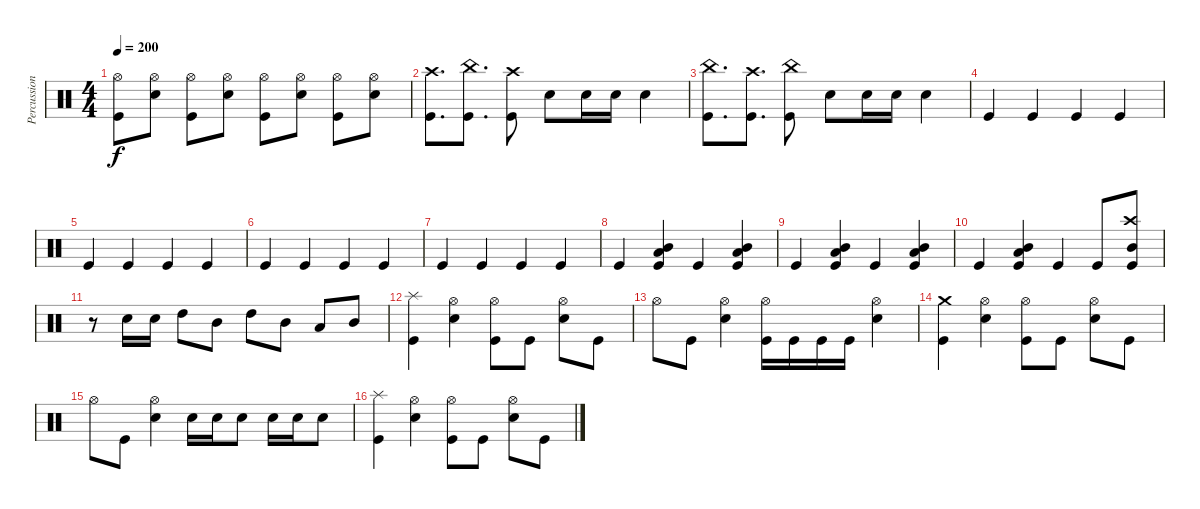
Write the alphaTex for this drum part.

\track ("Percussion" "Percussion") {instrument percussion}
\staff {score}
\articulation defaults
\ts (4 4)
\tempo 200
\clef neutral
\ks c
("Hi-Hat (open)" "Kick (hit)").8{dy f} ("Hi-Hat (open)" "Electric Snare (hit)").8 ("Hi-Hat (open)" "Kick (hit)").8 ("Hi-Hat (open)" "Electric Snare (hit)").8 ("Hi-Hat (open)" "Kick (hit)").8 ("Hi-Hat (open)" "Electric Snare (hit)").8 ("Hi-Hat (open)" "Kick (hit)").8 ("Hi-Hat (open)" "Electric Snare (hit)").8 |
("Crash high (hit)" "Kick (hit)").8{d} ("China (hit)" "Kick (hit)").8{d} ("Crash high (hit)" "Kick (hit)").8 "Electric Snare (hit)".8 "Electric Snare (hit)".16 "Electric Snare (hit)".16 "Electric Snare (hit)".4 |
("China (hit)" "Kick (hit)").8{d} ("Crash high (hit)" "Kick (hit)").8{d} ("China (hit)" "Kick (hit)").8 "Electric Snare (hit)".8 "Electric Snare (hit)".16 "Electric Snare (hit)".16 "Electric Snare (hit)".4 |
"Kick (hit)".4 "Kick (hit)".4 "Kick (hit)".4 "Kick (hit)".4 |
"Kick (hit)".4 "Kick (hit)".4 "Kick (hit)".4 "Kick (hit)".4 |
"Kick (hit)".4 "Kick (hit)".4 "Kick (hit)".4 "Kick (hit)".4 |
"Kick (hit)".4 "Kick (hit)".4 "Kick (hit)".4 "Kick (hit)".4 |
"Kick (hit)".4 ("Mid Tom (hit)" "Low Tom (hit)" "Kick (hit)").4 "Kick (hit)".4 ("Mid Tom (hit)" "Low Tom (hit)" "Kick (hit)").4 |
"Kick (hit)".4 ("Low Tom (hit)" "Mid Tom (hit)" "Kick (hit)").4 "Kick (hit)".4 ("Low Tom (hit)" "Mid Tom (hit)" "Kick (hit)").4 |
"Kick (hit)".4 ("Mid Tom (hit)" "Low Tom (hit)" "Kick (hit)").4 "Kick (hit)".4 "Kick (hit)".8 ("Crash high (hit)" "Mid Tom (hit)" "Kick (hit)").8 |
r.8 "Electric Snare (hit)".16 "Electric Snare (hit)".16 "High Tom (hit)".8 "Mid Tom (hit)".8 "High Tom (hit)".8 "Mid Tom (hit)".8 "Low Tom (hit)".8 "Mid Tom (hit)".8 |
("Splash (hit)" "Kick (hit)").4 ("Hi-Hat (open)" "Electric Snare (hit)").4 ("Hi-Hat (open)" "Kick (hit)").8 "Kick (hit)".8 ("Hi-Hat (open)" "Electric Snare (hit)").8 "Kick (hit)".8 |
"Hi-Hat (open)".8 "Kick (hit)".8 ("Hi-Hat (open)" "Electric Snare (hit)").4 ("Hi-Hat (open)" "Kick (hit)").16 "Kick (hit)".16 "Kick (hit)".16 "Kick (hit)".16 ("Hi-Hat (open)" "Electric Snare (hit)").4 |
("Crash medium (hit)" "Kick (hit)").4 ("Hi-Hat (open)" "Electric Snare (hit)").4 ("Hi-Hat (open)" "Kick (hit)").8 "Kick (hit)".8 ("Hi-Hat (open)" "Electric Snare (hit)").8 "Kick (hit)".8 |
"Hi-Hat (open)".8 "Kick (hit)".8 ("Hi-Hat (open)" "Electric Snare (hit)").4 "Electric Snare (hit)".16 "Electric Snare (hit)".16 "Electric Snare (hit)".8 "Electric Snare (hit)".16 "Electric Snare (hit)".16 "Electric Snare (hit)".8 |
("Splash (hit)" "Kick (hit)").4 ("Hi-Hat (open)" "Electric Snare (hit)").4 ("Hi-Hat (open)" "Kick (hit)").8 "Kick (hit)".8 ("Hi-Hat (open)" "Electric Snare (hit)").8 "Kick (hit)".8
